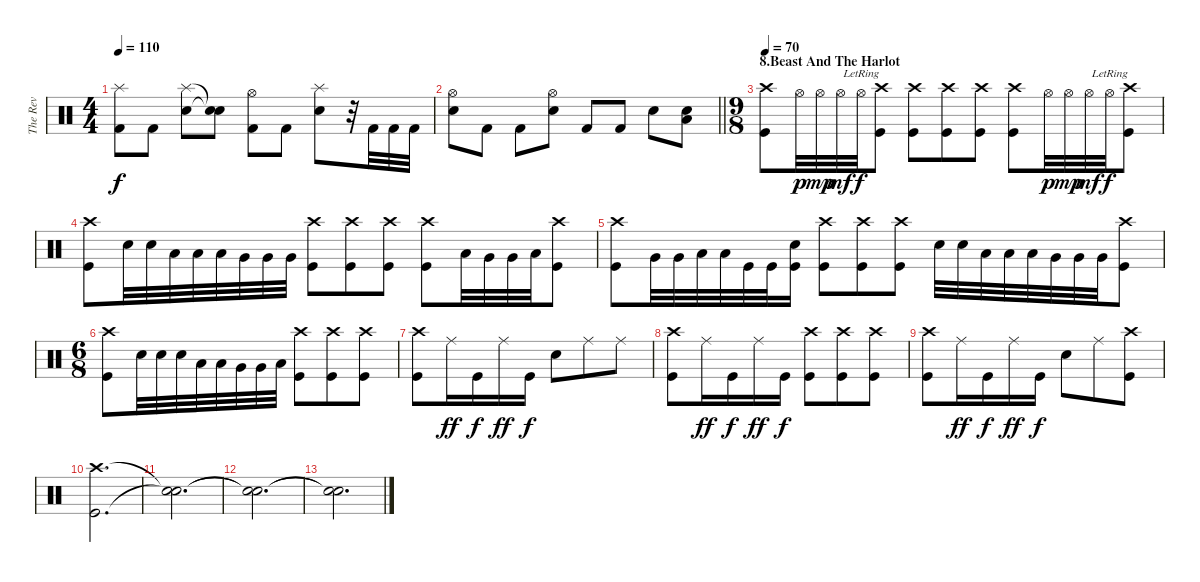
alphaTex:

\track ("The Rev" "The Rev") {instrument percussion}
\staff {score}
\articulation defaults
\ts (4 4)
\tempo 110
\clef neutral
\ks c
("Splash (hit)" "Kick (hit) 2").8{dy f} "Kick (hit) 2".8 ("Splash (hit)" "Electric Snare (hit)").8 ("Snare (hit)"{t} "Snare (hit)"{t}).8 ("Hi-Hat (open)" "Kick (hit) 2").8 "Kick (hit) 2".8 ("Splash (hit)" "Snare (hit) 2").8 r.32 "Kick (hit) 2".32 "Kick (hit) 2".32 "Kick (hit) 2".32 |
\barLineRight lightlight
("Hi-Hat (open)" "Electric Snare (hit)").8 "Kick (hit) 2".8 "Kick (hit) 2".8 ("Hi-Hat (open)" "Electric Snare (hit)").8 "Kick (hit) 2".8 "Kick (hit) 2".8 "Electric Snare (hit)".8 ("Low Floor Tom (hit)" "Electric Snare (hit)").8 |
\ts (9 8)
\section ("" "8.Beast And The Harlot")
\tempo 70
("Crash high (hit)" "Kick (hit)").8 "Hi-Hat (open)".32{dy p} "Hi-Hat (open)".32{dy mp} "Hi-Hat (open)".32{dy mf} "Hi-Hat (open)"{lr}.32{dy f} ("Crash high (hit)" "Kick (hit)").8 ("Crash high (hit)" "Kick (hit)").8 ("Crash high (hit)" "Kick (hit)").8 ("Crash high (hit)" "Kick (hit)").8 ("Crash high (hit)" "Kick (hit)").8 "Hi-Hat (open)".32{dy p} "Hi-Hat (open)".32{dy mp} "Hi-Hat (open)".32{dy mf} "Hi-Hat (open)"{lr}.32{dy f} ("Crash high (hit)" "Kick (hit)").8 |
("Crash high (hit)" "Kick (hit)").8 "Snare (hit) 2".32 "Snare (hit) 2".32 "Low Tom (hit)".32 "Low Tom (hit)".32 "Low Tom (hit)".32 "Very Low Tom (hit)".32 "Very Low Tom (hit)".32 "Very Low Tom (hit)".32 ("Crash high (hit)" "Kick (hit)").8 ("Crash high (hit)" "Kick (hit)").8 ("Crash high (hit)" "Kick (hit)").8 ("Crash high (hit)" "Kick (hit)").8 "Low Tom (hit)".32 "Very Low Tom (hit)".32 "Very Low Tom (hit)".32 "Low Floor Tom (hit)".32 ("Crash high (hit)" "Kick (hit)").8 |
("Crash high (hit)" "Kick (hit)").8 "Very Low Tom (hit)".32 "Very Low Tom (hit)".32 "Low Floor Tom (hit)".32 "Low Floor Tom (hit)".32 "Kick (hit)".32 "Kick (hit)".32 ("Electric Snare (hit)" "Kick (hit)").16 ("Crash high (hit)" "Kick (hit)").8 ("Crash high (hit)" "Kick (hit)").8 ("Crash high (hit)" "Kick (hit)").8 "Snare (hit) 2".32 "Snare (hit) 2".32 "Low Tom (hit)".32 "Low Tom (hit)".32 "Low Tom (hit)".32 "Very Low Tom (hit)".32 "Very Low Tom (hit)".32 "Very Low Tom (hit)".32 ("Crash high (hit)" "Kick (hit)").8 |
\ts (6 8)
("Crash high (hit)" "Kick (hit)").8 "Snare (hit) 2".32 "Snare (hit) 2".32 "Snare (hit) 2".32 "Low Tom (hit)".32 "Low Tom (hit)".32 "Very Low Tom (hit)".32 "Very Low Tom (hit)".32 "Low Floor Tom (hit)".32 ("Crash high (hit)" "Kick (hit)").8 ("Crash high (hit)" "Kick (hit)").8 ("Crash high (hit)" "Kick (hit)").8 |
("Crash high (hit)" "Kick (hit)").8 "Ride (middle)".16{dy ff} "Kick (hit)".16{dy f} "Ride (middle)".16{dy ff} "Kick (hit)".16{dy f} "Snare (hit) 2".8 "Ride (middle)".8 "Ride (middle)".8 |
("Crash high (hit)" "Kick (hit)").8 "Ride (middle)".16{dy ff} "Kick (hit)".16{dy f} "Ride (middle)".16{dy ff} "Kick (hit)".16{dy f} ("Crash high (hit)" "Kick (hit)").8 ("Crash high (hit)" "Kick (hit)").8 ("Crash high (hit)" "Kick (hit)").8 |
("Crash high (hit)" "Kick (hit)").8 "Ride (middle)".16{dy ff} "Kick (hit)".16{dy f} "Ride (middle)".16{dy ff} "Kick (hit)".16{dy f} "Snare (hit) 2".8 "Ride (middle)".8 ("Crash high (hit)" "Kick (hit)").8 |
("Crash high (hit)" "Kick (hit)").2{d} |
("Snare (hit)"{t} "Snare (hit)"{t}).2{d} |
("Snare (hit)"{t} "Snare (hit)"{t}).2{d} |
("Snare (hit)"{t} "Snare (hit)"{t}).2{d}
